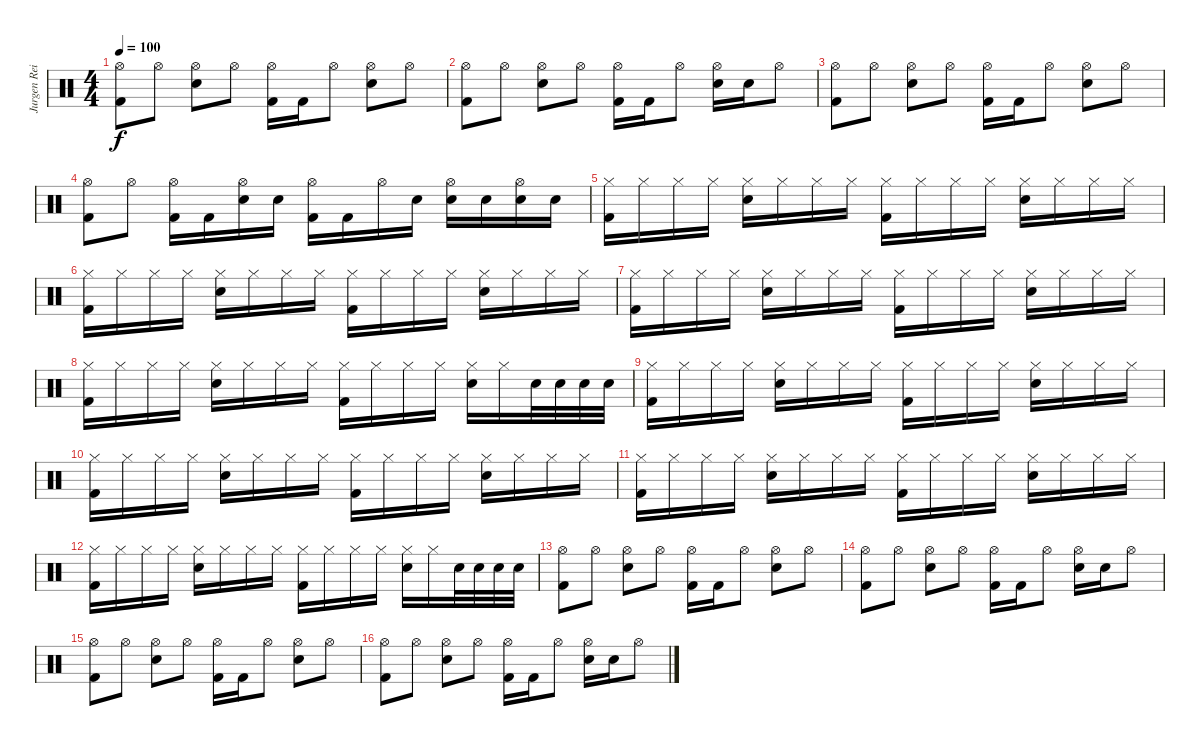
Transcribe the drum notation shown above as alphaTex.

\track ("Jurgen Reil" "Jurgen Rei") {instrument percussion}
\staff {score}
\articulation defaults
\ts (4 4)
\tempo 100
\clef neutral
\ks c
("Kick (hit) 2" "Hi-Hat (open)").8{dy f} "Hi-Hat (open)".8 ("Hi-Hat (open)" "Snare (hit) 2").8 "Hi-Hat (open)".8 ("Kick (hit) 2" "Hi-Hat (open)").16 "Kick (hit) 2".16 "Hi-Hat (open)".8 ("Snare (hit) 2" "Hi-Hat (open)").8 "Hi-Hat (open)".8 |
("Kick (hit) 2" "Hi-Hat (open)").8 "Hi-Hat (open)".8 ("Hi-Hat (open)" "Snare (hit) 2").8 "Hi-Hat (open)".8 ("Kick (hit) 2" "Hi-Hat (open)").16 "Kick (hit) 2".16 "Hi-Hat (open)".8 ("Snare (hit) 2" "Hi-Hat (open)").16 "Snare (hit) 2".16 "Hi-Hat (open)".8 |
("Kick (hit) 2" "Hi-Hat (open)").8 "Hi-Hat (open)".8 ("Hi-Hat (open)" "Snare (hit) 2").8 "Hi-Hat (open)".8 ("Kick (hit) 2" "Hi-Hat (open)").16 "Kick (hit) 2".16 "Hi-Hat (open)".8 ("Snare (hit) 2" "Hi-Hat (open)").8 "Hi-Hat (open)".8 |
("Kick (hit) 2" "Hi-Hat (open)").8 "Hi-Hat (open)".8 ("Hi-Hat (open)" "Kick (hit) 2").16 "Kick (hit) 2".16 ("Hi-Hat (open)" "Snare (hit) 2").16 "Snare (hit) 2".16 ("Kick (hit) 2" "Hi-Hat (open)").16 "Kick (hit) 2".16 "Hi-Hat (open)".16 "Snare (hit) 2".16 ("Hi-Hat (open)" "Snare (hit) 2").16 "Snare (hit) 2".16 ("Hi-Hat (open)" "Snare (hit) 2").16 "Snare (hit) 2".16 |
("Kick (hit) 2" "Hi-Hat (closed)").16 "Hi-Hat (closed)".16 "Hi-Hat (closed)".16 "Hi-Hat (closed)".16 ("Snare (hit) 2" "Hi-Hat (closed)").16 "Hi-Hat (closed)".16 "Hi-Hat (closed)".16 "Hi-Hat (closed)".16 ("Kick (hit) 2" "Hi-Hat (closed)").16 "Hi-Hat (closed)".16 "Hi-Hat (closed)".16 "Hi-Hat (closed)".16 ("Snare (hit) 2" "Hi-Hat (closed)").16 "Hi-Hat (closed)".16 "Hi-Hat (closed)".16 "Hi-Hat (closed)".16 |
("Kick (hit) 2" "Hi-Hat (closed)").16 "Hi-Hat (closed)".16 "Hi-Hat (closed)".16 "Hi-Hat (closed)".16 ("Snare (hit) 2" "Hi-Hat (closed)").16 "Hi-Hat (closed)".16 "Hi-Hat (closed)".16 "Hi-Hat (closed)".16 ("Kick (hit) 2" "Hi-Hat (closed)").16 "Hi-Hat (closed)".16 "Hi-Hat (closed)".16 "Hi-Hat (closed)".16 ("Snare (hit) 2" "Hi-Hat (closed)").16 "Hi-Hat (closed)".16 "Hi-Hat (closed)".16 "Hi-Hat (closed)".16 |
("Kick (hit) 2" "Hi-Hat (closed)").16 "Hi-Hat (closed)".16 "Hi-Hat (closed)".16 "Hi-Hat (closed)".16 ("Snare (hit) 2" "Hi-Hat (closed)").16 "Hi-Hat (closed)".16 "Hi-Hat (closed)".16 "Hi-Hat (closed)".16 ("Kick (hit) 2" "Hi-Hat (closed)").16 "Hi-Hat (closed)".16 "Hi-Hat (closed)".16 "Hi-Hat (closed)".16 ("Snare (hit) 2" "Hi-Hat (closed)").16 "Hi-Hat (closed)".16 "Hi-Hat (closed)".16 "Hi-Hat (closed)".16 |
("Kick (hit) 2" "Hi-Hat (closed)").16 "Hi-Hat (closed)".16 "Hi-Hat (closed)".16 "Hi-Hat (closed)".16 ("Snare (hit) 2" "Hi-Hat (closed)").16 "Hi-Hat (closed)".16 "Hi-Hat (closed)".16 "Hi-Hat (closed)".16 ("Kick (hit) 2" "Hi-Hat (closed)").16 "Hi-Hat (closed)".16 "Hi-Hat (closed)".16 "Hi-Hat (closed)".16 ("Snare (hit) 2" "Hi-Hat (closed)").16 "Hi-Hat (closed)".16 "Snare (hit) 2".32 "Snare (hit) 2".32 "Snare (hit) 2".32 "Snare (hit) 2".32 |
("Kick (hit) 2" "Hi-Hat (closed)").16 "Hi-Hat (closed)".16 "Hi-Hat (closed)".16 "Hi-Hat (closed)".16 ("Snare (hit) 2" "Hi-Hat (closed)").16 "Hi-Hat (closed)".16 "Hi-Hat (closed)".16 "Hi-Hat (closed)".16 ("Kick (hit) 2" "Hi-Hat (closed)").16 "Hi-Hat (closed)".16 "Hi-Hat (closed)".16 "Hi-Hat (closed)".16 ("Snare (hit) 2" "Hi-Hat (closed)").16 "Hi-Hat (closed)".16 "Hi-Hat (closed)".16 "Hi-Hat (closed)".16 |
("Kick (hit) 2" "Hi-Hat (closed)").16 "Hi-Hat (closed)".16 "Hi-Hat (closed)".16 "Hi-Hat (closed)".16 ("Snare (hit) 2" "Hi-Hat (closed)").16 "Hi-Hat (closed)".16 "Hi-Hat (closed)".16 "Hi-Hat (closed)".16 ("Kick (hit) 2" "Hi-Hat (closed)").16 "Hi-Hat (closed)".16 "Hi-Hat (closed)".16 "Hi-Hat (closed)".16 ("Snare (hit) 2" "Hi-Hat (closed)").16 "Hi-Hat (closed)".16 "Hi-Hat (closed)".16 "Hi-Hat (closed)".16 |
("Kick (hit) 2" "Hi-Hat (closed)").16 "Hi-Hat (closed)".16 "Hi-Hat (closed)".16 "Hi-Hat (closed)".16 ("Snare (hit) 2" "Hi-Hat (closed)").16 "Hi-Hat (closed)".16 "Hi-Hat (closed)".16 "Hi-Hat (closed)".16 ("Kick (hit) 2" "Hi-Hat (closed)").16 "Hi-Hat (closed)".16 "Hi-Hat (closed)".16 "Hi-Hat (closed)".16 ("Snare (hit) 2" "Hi-Hat (closed)").16 "Hi-Hat (closed)".16 "Hi-Hat (closed)".16 "Hi-Hat (closed)".16 |
("Kick (hit) 2" "Hi-Hat (closed)").16 "Hi-Hat (closed)".16 "Hi-Hat (closed)".16 "Hi-Hat (closed)".16 ("Snare (hit) 2" "Hi-Hat (closed)").16 "Hi-Hat (closed)".16 "Hi-Hat (closed)".16 "Hi-Hat (closed)".16 ("Kick (hit) 2" "Hi-Hat (closed)").16 "Hi-Hat (closed)".16 "Hi-Hat (closed)".16 "Hi-Hat (closed)".16 ("Snare (hit) 2" "Hi-Hat (closed)").16 "Hi-Hat (closed)".16 "Snare (hit) 2".32 "Snare (hit) 2".32 "Snare (hit) 2".32 "Snare (hit) 2".32 |
("Kick (hit) 2" "Hi-Hat (open)").8 "Hi-Hat (open)".8 ("Hi-Hat (open)" "Snare (hit) 2").8 "Hi-Hat (open)".8 ("Kick (hit) 2" "Hi-Hat (open)").16 "Kick (hit) 2".16 "Hi-Hat (open)".8 ("Snare (hit) 2" "Hi-Hat (open)").8 "Hi-Hat (open)".8 |
("Kick (hit) 2" "Hi-Hat (open)").8 "Hi-Hat (open)".8 ("Hi-Hat (open)" "Snare (hit) 2").8 "Hi-Hat (open)".8 ("Kick (hit) 2" "Hi-Hat (open)").16 "Kick (hit) 2".16 "Hi-Hat (open)".8 ("Snare (hit) 2" "Hi-Hat (open)").16 "Snare (hit) 2".16 "Hi-Hat (open)".8 |
("Kick (hit) 2" "Hi-Hat (open)").8 "Hi-Hat (open)".8 ("Hi-Hat (open)" "Snare (hit) 2").8 "Hi-Hat (open)".8 ("Kick (hit) 2" "Hi-Hat (open)").16 "Kick (hit) 2".16 "Hi-Hat (open)".8 ("Snare (hit) 2" "Hi-Hat (open)").8 "Hi-Hat (open)".8 |
("Kick (hit) 2" "Hi-Hat (open)").8 "Hi-Hat (open)".8 ("Hi-Hat (open)" "Snare (hit) 2").8 "Hi-Hat (open)".8 ("Kick (hit) 2" "Hi-Hat (open)").16 "Kick (hit) 2".16 "Hi-Hat (open)".8 ("Snare (hit) 2" "Hi-Hat (open)").16 "Snare (hit) 2".16 "Hi-Hat (open)".8
